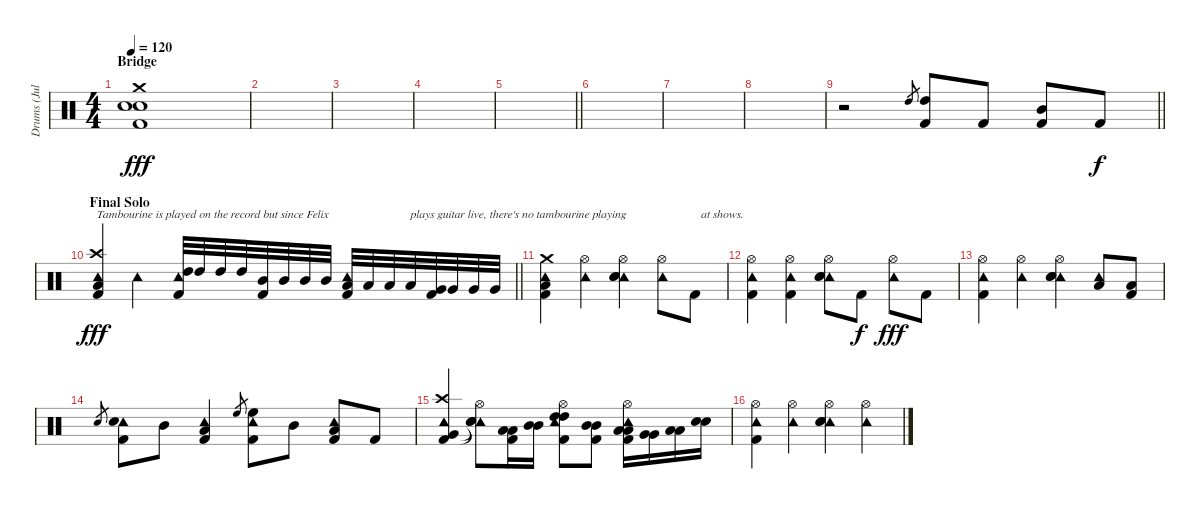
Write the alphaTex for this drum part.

\track ("Drums (Julian Del Rosario)" "Drums (Jul") {instrument percussion}
\staff {score}
\articulation defaults
\ts (4 4)
\section ("" "Bridge")
\tempo 120
\clef neutral
\ks c
("Crash medium (hit)" "Snare (hit) 2" "Electric Snare (hit)" "Kick (hit) 2").1{dy fff} |
|
|
|
\barLineRight lightlight
|
|
|
|
\barLineRight lightlight
r.2 "High Tom (hit)".8{gr} ("High Tom (hit)" "Kick (hit) 2").8{volume 8} "Kick (hit) 2".8 ("Mid Tom (hit)" "Kick (hit) 2").8 "Kick (hit) 2".8{dy f} |
\section ("" "Final Solo")
\barLineRight lightlight
("Tambourine (hit)" "Crash high (hit)" "Low Tom (hit)" "Kick (hit) 2").4{txt "Tambourine is played on the record but since Felix" dy fff} "Tambourine (hit)".4 ("Tambourine (hit)" "High Tom (hit)" "Kick (hit) 2").32{balance 13} "High Tom (hit)".32 "High Tom (hit)".32 "High Tom (hit)".32 ("Mid Tom (hit)" "Kick (hit) 2").32{balance 11} "Mid Tom (hit)".32 "Mid Tom (hit)".32 "Mid Tom (hit)".32 ("Tambourine (hit)" "Low Tom (hit)" "Kick (hit) 2").32{balance 9} "Low Tom (hit)".32 "Low Tom (hit)".32 "Low Tom (hit)".32{txt "plays guitar live, there's no tambourine playing"} ("Very Low Tom (hit)" "Kick (hit) 2").32{balance 6} "Very Low Tom (hit)".32 "Very Low Tom (hit)".32 "Very Low Tom (hit)".32 |
("Tambourine (hit)" "Crash medium (hit)" "Low Floor Tom (hit)" "Kick (hit) 2").4{balance 8} ("Tambourine (hit)" "Hi-Hat (open)").4 ("Tambourine (hit)" "Hi-Hat (open)" "Snare (hit) 2" "Electric Snare (hit)").4 ("Tambourine (hit)" "Hi-Hat (open)").8 "Kick (hit) 2".8{txt "  at shows."} |
("Tambourine (hit)" "Hi-Hat (open)" "Kick (hit) 2").4 ("Tambourine (hit)" "Hi-Hat (open)" "Kick (hit) 2").4 ("Tambourine (hit)" "Hi-Hat (open)" "Snare (hit) 2" "Electric Snare (hit)").8 "Kick (hit) 2".8{dy f} ("Tambourine (hit)" "Hi-Hat (open)").8{dy fff} "Kick (hit) 2".8 |
("Tambourine (hit)" "Hi-Hat (open)" "Kick (hit) 2").4 ("Tambourine (hit)" "Hi-Hat (open)").4 ("Tambourine (hit)" "Hi-Hat (open)" "Snare (hit) 2" "Electric Snare (hit)").4 ("Tambourine (hit)" "Low Floor Tom (hit)").8 ("Low Floor Tom (hit)" "Kick (hit) 2").8 |
"Snare (hit) 2".8{gr} ("Tambourine (hit)" "Snare (hit) 2" "Kick (hit) 2").8{volume 10} "Mid Tom (hit)".8 ("Tambourine (hit)" "Low Tom (hit)" "Kick (hit) 2").4 "High Floor Tom (hit)".8{gr} ("Tambourine (hit)" "High Floor Tom (hit)" "Kick (hit) 2").8 "Mid Tom (hit)".8 ("Tambourine (hit)" "Low Tom (hit)" "Kick (hit) 2").8 "Kick (hit) 2".8 |
("Tambourine (hit)" "Crash high (hit)" "Very Low Tom (hit)" "Kick (hit) 2").4 ("Tambourine (hit)" "Hi-Hat (open)" "Snare (hit)"{t} "Snare (hit)"{t}).8 ("Low Tom (hit)" "Low Tom (hit)" "Kick (hit) 2").16 ("Mid Tom (hit)" "Mid Tom (hit)").16 ("Tambourine (hit)" "Hi-Hat (open)" "High Tom (hit)" "High Tom (hit)" "Kick (hit) 2").8 ("Mid Tom (hit)" "Mid Tom (hit)" "Kick (hit) 2").8 ("Tambourine (hit)" "Hi-Hat (open)" "Low Tom (hit)" "Low Tom (hit)" "Kick (hit) 2").16 ("Very Low Tom (hit)" "Very Low Tom (hit)").16 ("Low Floor Tom (hit)" "Low Floor Tom (hit)").16 ("Snare (hit) 2" "Snare (hit) 2").16 |
("Tambourine (hit)" "Hi-Hat (open)" "Kick (hit) 2").4{volume 6} ("Tambourine (hit)" "Hi-Hat (open)").4 ("Tambourine (hit)" "Hi-Hat (open)" "Snare (hit) 2" "Electric Snare (hit)").4 ("Tambourine (hit)" "Hi-Hat (open)").4
